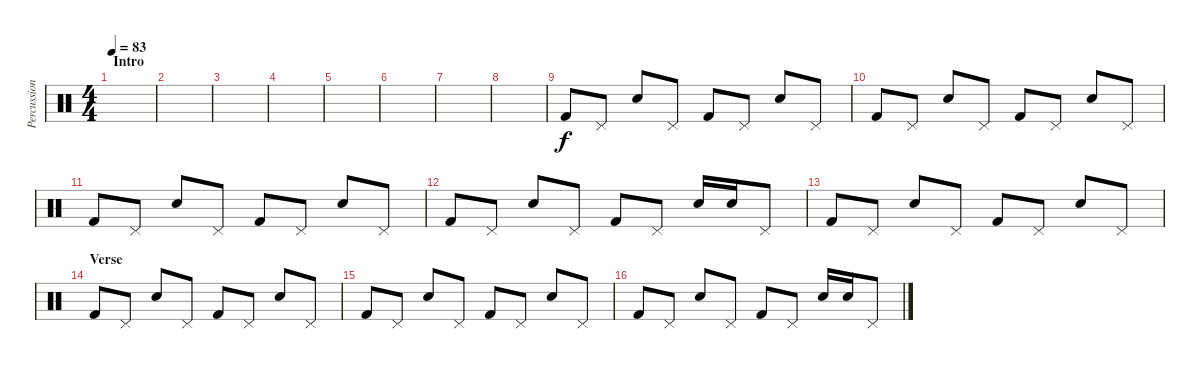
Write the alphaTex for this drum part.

\track ("Percussion" "Percussion") {instrument percussion}
\staff {score}
\articulation defaults
\ts (4 4)
\section ("" "Intro")
\tempo 83
\clef neutral
\ks c
|
|
|
|
|
|
|
|
"Kick (hit) 2".8 "Pedal Hi-Hat (hit)".8 "Electric Snare (hit)".8 "Pedal Hi-Hat (hit)".8 "Kick (hit) 2".8 "Pedal Hi-Hat (hit)".8 "Electric Snare (hit)".8 "Pedal Hi-Hat (hit)".8 |
"Kick (hit) 2".8 "Pedal Hi-Hat (hit)".8 "Electric Snare (hit)".8 "Pedal Hi-Hat (hit)".8 "Kick (hit) 2".8 "Pedal Hi-Hat (hit)".8 "Electric Snare (hit)".8 "Pedal Hi-Hat (hit)".8 |
"Kick (hit) 2".8 "Pedal Hi-Hat (hit)".8 "Electric Snare (hit)".8 "Pedal Hi-Hat (hit)".8 "Kick (hit) 2".8 "Pedal Hi-Hat (hit)".8 "Electric Snare (hit)".8 "Pedal Hi-Hat (hit)".8 |
"Kick (hit) 2".8 "Pedal Hi-Hat (hit)".8 "Electric Snare (hit)".8 "Pedal Hi-Hat (hit)".8 "Kick (hit) 2".8 "Pedal Hi-Hat (hit)".8 "Electric Snare (hit)".16 "Electric Snare (hit)".16 "Pedal Hi-Hat (hit)".8 |
"Kick (hit) 2".8 "Pedal Hi-Hat (hit)".8 "Electric Snare (hit)".8 "Pedal Hi-Hat (hit)".8 "Kick (hit) 2".8 "Pedal Hi-Hat (hit)".8 "Electric Snare (hit)".8 "Pedal Hi-Hat (hit)".8 |
\section ("" "Verse")
"Kick (hit) 2".8 "Pedal Hi-Hat (hit)".8 "Electric Snare (hit)".8 "Pedal Hi-Hat (hit)".8 "Kick (hit) 2".8 "Pedal Hi-Hat (hit)".8 "Electric Snare (hit)".8 "Pedal Hi-Hat (hit)".8 |
"Kick (hit) 2".8 "Pedal Hi-Hat (hit)".8 "Electric Snare (hit)".8 "Pedal Hi-Hat (hit)".8 "Kick (hit) 2".8 "Pedal Hi-Hat (hit)".8 "Electric Snare (hit)".8 "Pedal Hi-Hat (hit)".8 |
"Kick (hit) 2".8 "Pedal Hi-Hat (hit)".8 "Electric Snare (hit)".8 "Pedal Hi-Hat (hit)".8 "Kick (hit) 2".8 "Pedal Hi-Hat (hit)".8 "Electric Snare (hit)".16 "Electric Snare (hit)".16 "Pedal Hi-Hat (hit)".8
